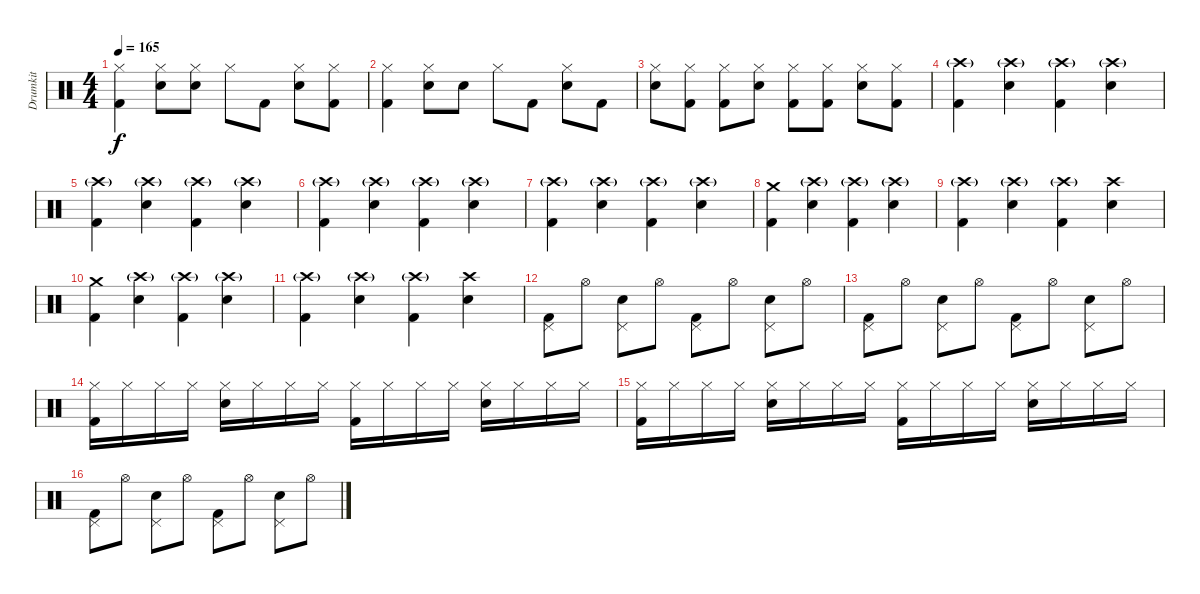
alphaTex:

\track ("Drumkit" "Drumkit") {instrument percussion}
\staff {score}
\articulation defaults
\ts (4 4)
\tempo 165
\clef neutral
\ks c
("Hi-Hat (closed)" "Kick (hit) 2").4{dy f} ("Hi-Hat (closed)" "Snare (hit) 2").8 ("Hi-Hat (closed)" "Snare (hit) 2").8 "Hi-Hat (closed)".8 "Kick (hit) 2".8 ("Hi-Hat (closed)" "Snare (hit) 2").8 ("Hi-Hat (closed)" "Kick (hit) 2").8 |
("Hi-Hat (closed)" "Kick (hit) 2").4 ("Hi-Hat (closed)" "Snare (hit) 2").8 "Snare (hit) 2".8 "Hi-Hat (closed)".8 "Kick (hit) 2".8 ("Hi-Hat (closed)" "Snare (hit) 2").8 "Kick (hit) 2".8 |
("Hi-Hat (closed)" "Snare (hit) 2").8 ("Hi-Hat (closed)" "Kick (hit) 2").8 ("Hi-Hat (closed)" "Kick (hit) 2").8 ("Hi-Hat (closed)" "Snare (hit) 2").8 ("Hi-Hat (closed)" "Kick (hit) 2").8 ("Hi-Hat (closed)" "Kick (hit) 2").8 ("Hi-Hat (closed)" "Snare (hit) 2").8 ("Hi-Hat (closed)" "Kick (hit) 2").8 |
("Crash high (hit)"{g} "Kick (hit) 2").4 ("Crash high (hit)"{g} "Snare (hit) 2").4 ("Crash high (hit)"{g} "Kick (hit) 2").4 ("Crash high (hit)"{g} "Snare (hit) 2").4 |
("Crash high (hit)"{g} "Kick (hit) 2").4 ("Crash high (hit)"{g} "Snare (hit) 2").4 ("Crash high (hit)"{g} "Kick (hit) 2").4 ("Crash high (hit)"{g} "Snare (hit) 2").4 |
("Crash high (hit)"{g} "Kick (hit) 2").4 ("Crash high (hit)"{g} "Snare (hit) 2").4 ("Crash high (hit)"{g} "Kick (hit) 2").4 ("Crash high (hit)"{g} "Snare (hit) 2").4 |
("Crash high (hit)"{g} "Kick (hit) 2").4 ("Crash high (hit)"{g} "Snare (hit) 2").4 ("Crash high (hit)"{g} "Kick (hit) 2").4 ("Crash high (hit)"{g} "Snare (hit) 2").4 |
("Crash medium (hit)" "Kick (hit) 2").4 ("Crash high (hit)"{g} "Snare (hit) 2").4 ("Crash high (hit)"{g} "Kick (hit) 2").4 ("Crash high (hit)"{g} "Snare (hit) 2").4 |
("Crash high (hit)"{g} "Kick (hit) 2").4 ("Crash high (hit)"{g} "Snare (hit) 2").4 ("Crash high (hit)"{g} "Kick (hit) 2").4 ("Crash high (hit)" "Snare (hit) 2").4 |
("Crash medium (hit)" "Kick (hit) 2").4 ("Crash high (hit)"{g} "Snare (hit) 2").4 ("Crash high (hit)"{g} "Kick (hit) 2").4 ("Crash high (hit)"{g} "Snare (hit) 2").4 |
("Crash high (hit)"{g} "Kick (hit) 2").4 ("Crash high (hit)"{g} "Snare (hit) 2").4 ("Crash high (hit)"{g} "Kick (hit) 2").4 ("Crash high (hit)" "Snare (hit) 2").4 |
("Pedal Hi-Hat (hit)" "Kick (hit) 2").8 "Hi-Hat (open)".8 ("Pedal Hi-Hat (hit)" "Snare (hit) 2").8 "Hi-Hat (open)".8 ("Pedal Hi-Hat (hit)" "Kick (hit) 2").8 "Hi-Hat (open)".8 ("Pedal Hi-Hat (hit)" "Snare (hit) 2").8 "Hi-Hat (open)".8 |
("Pedal Hi-Hat (hit)" "Kick (hit) 2").8 "Hi-Hat (open)".8 ("Pedal Hi-Hat (hit)" "Snare (hit) 2").8 "Hi-Hat (open)".8 ("Pedal Hi-Hat (hit)" "Kick (hit) 2").8 "Hi-Hat (open)".8 ("Pedal Hi-Hat (hit)" "Snare (hit) 2").8 "Hi-Hat (open)".8 |
("Hi-Hat (closed)" "Kick (hit) 2").16 "Hi-Hat (closed)".16 "Hi-Hat (closed)".16 "Hi-Hat (closed)".16 ("Hi-Hat (closed)" "Snare (hit) 2").16 "Hi-Hat (closed)".16 "Hi-Hat (closed)".16 "Hi-Hat (closed)".16 ("Hi-Hat (closed)" "Kick (hit) 2").16 "Hi-Hat (closed)".16 "Hi-Hat (closed)".16 "Hi-Hat (closed)".16 ("Hi-Hat (closed)" "Snare (hit) 2").16 "Hi-Hat (closed)".16 "Hi-Hat (closed)".16 "Hi-Hat (closed)".16 |
("Hi-Hat (closed)" "Kick (hit) 2").16 "Hi-Hat (closed)".16 "Hi-Hat (closed)".16 "Hi-Hat (closed)".16 ("Hi-Hat (closed)" "Snare (hit) 2").16 "Hi-Hat (closed)".16 "Hi-Hat (closed)".16 "Hi-Hat (closed)".16 ("Hi-Hat (closed)" "Kick (hit) 2").16 "Hi-Hat (closed)".16 "Hi-Hat (closed)".16 "Hi-Hat (closed)".16 ("Hi-Hat (closed)" "Snare (hit) 2").16 "Hi-Hat (closed)".16 "Hi-Hat (closed)".16 "Hi-Hat (closed)".16 |
("Pedal Hi-Hat (hit)" "Kick (hit) 2").8 "Hi-Hat (open)".8 ("Pedal Hi-Hat (hit)" "Snare (hit) 2").8 "Hi-Hat (open)".8 ("Pedal Hi-Hat (hit)" "Kick (hit) 2").8 "Hi-Hat (open)".8 ("Pedal Hi-Hat (hit)" "Snare (hit) 2").8 "Hi-Hat (open)".8
